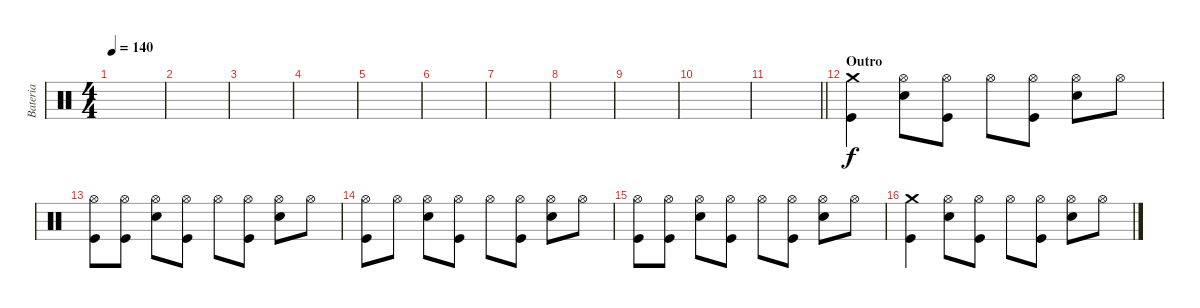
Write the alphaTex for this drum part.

\track ("Bateria" "Bateria") {instrument percussion}
\staff {score}
\articulation defaults
\ts (4 4)
\tempo 140
\clef neutral
\ks c
|
|
|
|
|
|
|
|
|
|
\barLineRight lightlight
|
\section ("" "Outro")
("Kick (hit)" "Crash medium (hit)").4 ("Snare (hit) 2" "Hi-Hat (open)").8 ("Kick (hit)" "Hi-Hat (open)").8 "Hi-Hat (open)".8 ("Kick (hit)" "Hi-Hat (open)").8 ("Snare (hit) 2" "Hi-Hat (open)").8 "Hi-Hat (open)".8 |
("Kick (hit)" "Hi-Hat (open)").8 ("Kick (hit)" "Hi-Hat (open)").8 ("Snare (hit) 2" "Hi-Hat (open)").8 ("Kick (hit)" "Hi-Hat (open)").8 "Hi-Hat (open)".8 ("Kick (hit)" "Hi-Hat (open)").8 ("Snare (hit) 2" "Hi-Hat (open)").8 "Hi-Hat (open)".8 |
("Kick (hit)" "Hi-Hat (open)").8 "Hi-Hat (open)".8 ("Snare (hit) 2" "Hi-Hat (open)").8 ("Kick (hit)" "Hi-Hat (open)").8 "Hi-Hat (open)".8 ("Kick (hit)" "Hi-Hat (open)").8 ("Snare (hit) 2" "Hi-Hat (open)").8 "Hi-Hat (open)".8 |
("Kick (hit)" "Hi-Hat (open)").8 ("Kick (hit)" "Hi-Hat (open)").8 ("Snare (hit) 2" "Hi-Hat (open)").8 ("Kick (hit)" "Hi-Hat (open)").8 "Hi-Hat (open)".8 ("Kick (hit)" "Hi-Hat (open)").8 ("Snare (hit) 2" "Hi-Hat (open)").8 "Hi-Hat (open)".8 |
("Kick (hit)" "Crash medium (hit)").4 ("Snare (hit) 2" "Hi-Hat (open)").8 ("Kick (hit)" "Hi-Hat (open)").8 "Hi-Hat (open)".8 ("Kick (hit)" "Hi-Hat (open)").8 ("Snare (hit) 2" "Hi-Hat (open)").8 "Hi-Hat (open)".8
